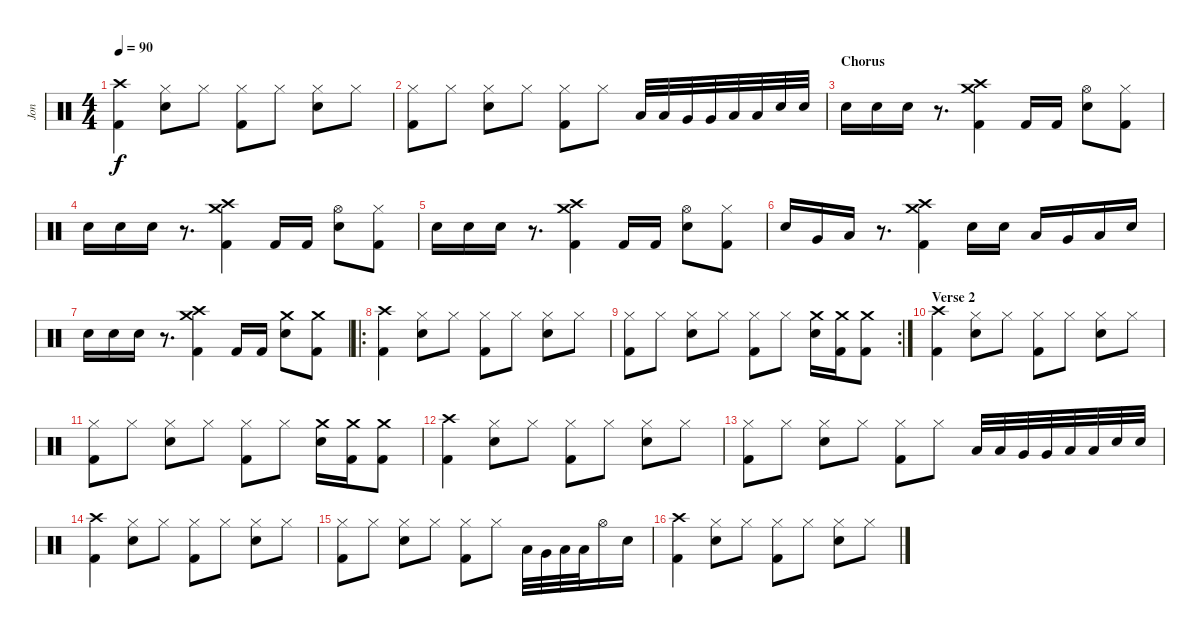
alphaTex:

\track ("Jon" "Jon") {instrument percussion}
\staff {score}
\articulation defaults
\ts (4 4)
\tempo 90
\clef neutral
\ks c
("Crash high (hit)" "Kick (hit) 2").4{dy f} ("Hi-Hat (closed)" "Snare (hit) 2").8 "Hi-Hat (closed)".8 ("Hi-Hat (closed)" "Kick (hit) 2").8 "Hi-Hat (closed)".8 ("Hi-Hat (closed)" "Snare (hit) 2").8 "Hi-Hat (closed)".8 |
("Hi-Hat (closed)" "Kick (hit) 2").8 "Hi-Hat (closed)".8 ("Hi-Hat (closed)" "Snare (hit) 2").8 "Hi-Hat (closed)".8 ("Hi-Hat (closed)" "Kick (hit) 2").8 "Hi-Hat (closed)".8 "Low Tom (hit)".32 "Low Tom (hit)".32 "Very Low Tom (hit)".32 "Very Low Tom (hit)".32 "Low Floor Tom (hit)".32 "Low Floor Tom (hit)".32 "Snare (hit) 2".32 "Snare (hit) 2".32 |
\section ("" "Chorus ")
"Snare (hit) 2".16 "Snare (hit) 2".16 "Snare (hit) 2".16 r.8{d} ("Crash medium (hit)" "Crash high (hit)" "Kick (hit) 2").4 "Kick (hit) 2".16 "Kick (hit) 2".16 ("Hi-Hat (open)" "Snare (hit) 2").8 ("Hi-Hat (closed)" "Kick (hit) 2").8 |
"Snare (hit) 2".16 "Snare (hit) 2".16 "Snare (hit) 2".16 r.8{d} ("Crash medium (hit)" "Crash high (hit)" "Kick (hit) 2").4 "Kick (hit) 2".16 "Kick (hit) 2".16 ("Hi-Hat (open)" "Snare (hit) 2").8 ("Hi-Hat (closed)" "Kick (hit) 2").8 |
"Snare (hit) 2".16 "Snare (hit) 2".16 "Snare (hit) 2".16 r.8{d} ("Crash medium (hit)" "Crash high (hit)" "Kick (hit) 2").4 "Kick (hit) 2".16 "Kick (hit) 2".16 ("Hi-Hat (open)" "Snare (hit) 2").8 ("Hi-Hat (closed)" "Kick (hit) 2").8 |
"Snare (hit) 2".16 "Very Low Tom (hit)".16 "Low Floor Tom (hit)".16 r.8{d} ("Crash medium (hit)" "Crash high (hit)" "Kick (hit) 2").4 "Snare (hit) 2".16 "Snare (hit) 2".16 "Low Tom (hit)".16 "Very Low Tom (hit)".16 "Low Floor Tom (hit)".16 "Snare (hit) 2".16 |
"Snare (hit) 2".16 "Snare (hit) 2".16 "Snare (hit) 2".16 r.8{d} ("Crash medium (hit)" "Crash high (hit)" "Kick (hit) 2").4 "Kick (hit) 2".16 "Kick (hit) 2".16 ("Crash medium (hit)" "Snare (hit) 2").8 ("Crash medium (hit)" "Kick (hit) 2").8 |
\ro
("Crash high (hit)" "Kick (hit) 2").4 ("Hi-Hat (closed)" "Snare (hit) 2").8 "Hi-Hat (closed)".8 ("Hi-Hat (closed)" "Kick (hit) 2").8 "Hi-Hat (closed)".8 ("Hi-Hat (closed)" "Snare (hit) 2").8 "Hi-Hat (closed)".8 |
\rc 2
("Hi-Hat (closed)" "Kick (hit) 2").8 "Hi-Hat (closed)".8 ("Hi-Hat (closed)" "Snare (hit) 2").8 "Hi-Hat (closed)".8 ("Hi-Hat (closed)" "Kick (hit) 2").8 "Hi-Hat (closed)".8 ("Crash medium (hit)" "Snare (hit) 2").16 ("Crash medium (hit)" "Kick (hit) 2").16 ("Crash medium (hit)" "Kick (hit) 2").8 |
\section ("" "Verse 2")
("Crash high (hit)" "Kick (hit) 2").4 ("Hi-Hat (closed)" "Snare (hit) 2").8 "Hi-Hat (closed)".8 ("Hi-Hat (closed)" "Kick (hit) 2").8 "Hi-Hat (closed)".8 ("Hi-Hat (closed)" "Snare (hit) 2").8 "Hi-Hat (closed)".8 |
("Hi-Hat (closed)" "Kick (hit) 2").8 "Hi-Hat (closed)".8 ("Hi-Hat (closed)" "Snare (hit) 2").8 "Hi-Hat (closed)".8 ("Hi-Hat (closed)" "Kick (hit) 2").8 "Hi-Hat (closed)".8 ("Crash medium (hit)" "Snare (hit) 2").16 ("Crash medium (hit)" "Kick (hit) 2").16 ("Crash medium (hit)" "Kick (hit) 2").8 |
("Crash high (hit)" "Kick (hit) 2").4 ("Hi-Hat (closed)" "Snare (hit) 2").8 "Hi-Hat (closed)".8 ("Hi-Hat (closed)" "Kick (hit) 2").8 "Hi-Hat (closed)".8 ("Hi-Hat (closed)" "Snare (hit) 2").8 "Hi-Hat (closed)".8 |
("Hi-Hat (closed)" "Kick (hit) 2").8 "Hi-Hat (closed)".8 ("Hi-Hat (closed)" "Snare (hit) 2").8 "Hi-Hat (closed)".8 ("Hi-Hat (closed)" "Kick (hit) 2").8 "Hi-Hat (closed)".8 "Low Tom (hit)".32 "Low Tom (hit)".32 "Very Low Tom (hit)".32 "Very Low Tom (hit)".32 "Low Floor Tom (hit)".32 "Low Floor Tom (hit)".32 "Snare (hit) 2".32 "Snare (hit) 2".32 |
("Crash high (hit)" "Kick (hit) 2").4 ("Hi-Hat (closed)" "Snare (hit) 2").8 "Hi-Hat (closed)".8 ("Hi-Hat (closed)" "Kick (hit) 2").8 "Hi-Hat (closed)".8 ("Hi-Hat (closed)" "Snare (hit) 2").8 "Hi-Hat (closed)".8 |
("Hi-Hat (closed)" "Kick (hit) 2").8 "Hi-Hat (closed)".8 ("Hi-Hat (closed)" "Snare (hit) 2").8 "Hi-Hat (closed)".8 ("Hi-Hat (closed)" "Kick (hit) 2").8 "Hi-Hat (closed)".8 "Low Tom (hit)".32 "Very Low Tom (hit)".32 "Low Tom (hit)".32 "Low Floor Tom (hit)".32 "Hi-Hat (open)".16 "Snare (hit) 2".16 |
("Crash high (hit)" "Kick (hit) 2").4 ("Hi-Hat (closed)" "Snare (hit) 2").8 "Hi-Hat (closed)".8 ("Hi-Hat (closed)" "Kick (hit) 2").8 "Hi-Hat (closed)".8 ("Hi-Hat (closed)" "Snare (hit) 2").8 "Hi-Hat (closed)".8
